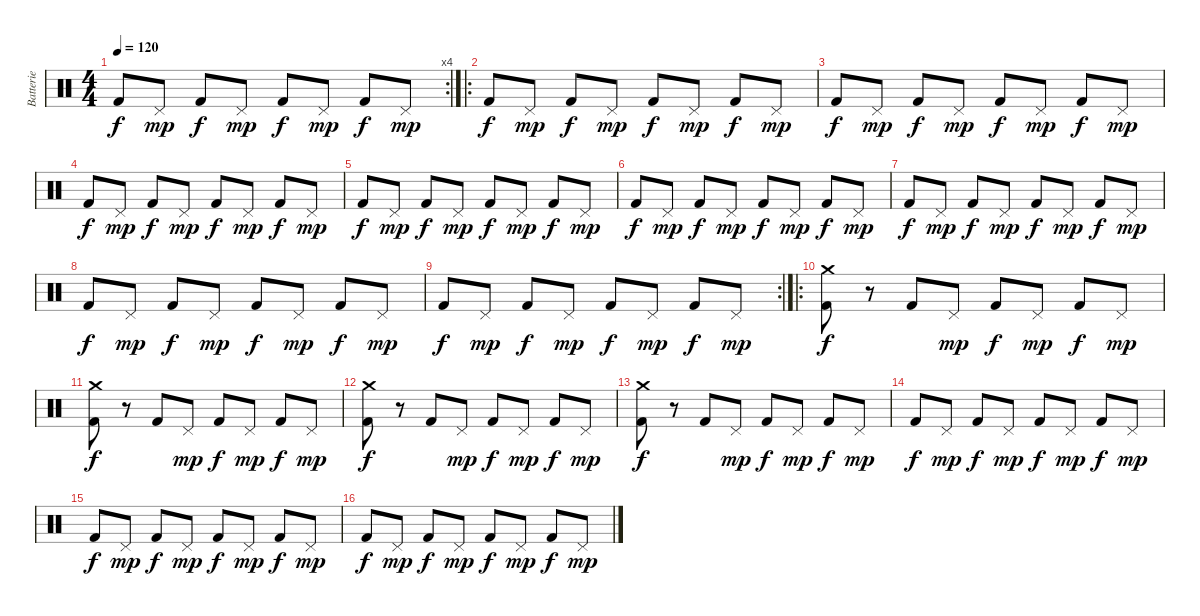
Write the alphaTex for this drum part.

\track ("Batterie" "Batterie") {instrument percussion}
\staff {score}
\articulation defaults
\rc 4
\ts (4 4)
\tempo 120
\clef neutral
\ks c "Kick (hit) 2".8{dy f} "Pedal Hi-Hat (hit)".8{dy mp} "Kick (hit) 2".8{dy f} "Pedal Hi-Hat (hit)".8{dy mp} "Kick (hit) 2".8{dy f} "Pedal Hi-Hat (hit)".8{dy mp} "Kick (hit) 2".8{dy f} "Pedal Hi-Hat (hit)".8{dy mp}
|
\ro "Kick (hit) 2".8{dy f} "Pedal Hi-Hat (hit)".8{dy mp} "Kick (hit) 2".8{dy f} "Pedal Hi-Hat (hit)".8{dy mp} "Kick (hit) 2".8{dy f} "Pedal Hi-Hat (hit)".8{dy mp} "Kick (hit) 2".8{dy f} "Pedal Hi-Hat (hit)".8{dy mp}
|
"Kick (hit) 2".8{dy f} "Pedal Hi-Hat (hit)".8{dy mp} "Kick (hit) 2".8{dy f} "Pedal Hi-Hat (hit)".8{dy mp} "Kick (hit) 2".8{dy f} "Pedal Hi-Hat (hit)".8{dy mp} "Kick (hit) 2".8{dy f} "Pedal Hi-Hat (hit)".8{dy mp} |
"Kick (hit) 2".8{dy f} "Pedal Hi-Hat (hit)".8{dy mp} "Kick (hit) 2".8{dy f} "Pedal Hi-Hat (hit)".8{dy mp} "Kick (hit) 2".8{dy f} "Pedal Hi-Hat (hit)".8{dy mp} "Kick (hit) 2".8{dy f} "Pedal Hi-Hat (hit)".8{dy mp} |
"Kick (hit) 2".8{dy f} "Pedal Hi-Hat (hit)".8{dy mp} "Kick (hit) 2".8{dy f} "Pedal Hi-Hat (hit)".8{dy mp} "Kick (hit) 2".8{dy f} "Pedal Hi-Hat (hit)".8{dy mp} "Kick (hit) 2".8{dy f} "Pedal Hi-Hat (hit)".8{dy mp} |
"Kick (hit) 2".8{dy f} "Pedal Hi-Hat (hit)".8{dy mp} "Kick (hit) 2".8{dy f} "Pedal Hi-Hat (hit)".8{dy mp} "Kick (hit) 2".8{dy f} "Pedal Hi-Hat (hit)".8{dy mp} "Kick (hit) 2".8{dy f} "Pedal Hi-Hat (hit)".8{dy mp} |
"Kick (hit) 2".8{dy f} "Pedal Hi-Hat (hit)".8{dy mp} "Kick (hit) 2".8{dy f} "Pedal Hi-Hat (hit)".8{dy mp} "Kick (hit) 2".8{dy f} "Pedal Hi-Hat (hit)".8{dy mp} "Kick (hit) 2".8{dy f} "Pedal Hi-Hat (hit)".8{dy mp} |
"Kick (hit) 2".8{dy f} "Pedal Hi-Hat (hit)".8{dy mp} "Kick (hit) 2".8{dy f} "Pedal Hi-Hat (hit)".8{dy mp} "Kick (hit) 2".8{dy f} "Pedal Hi-Hat (hit)".8{dy mp} "Kick (hit) 2".8{dy f} "Pedal Hi-Hat (hit)".8{dy mp} |
\rc 2 "Kick (hit) 2".8{dy f} "Pedal Hi-Hat (hit)".8{dy mp} "Kick (hit) 2".8{dy f} "Pedal Hi-Hat (hit)".8{dy mp} "Kick (hit) 2".8{dy f} "Pedal Hi-Hat (hit)".8{dy mp} "Kick (hit) 2".8{dy f} "Pedal Hi-Hat (hit)".8{dy mp}
|
\ro
("Kick (hit) 2" "Crash medium (hit)").8{dy f} r.8 "Kick (hit) 2".8 "Pedal Hi-Hat (hit)".8{dy mp} "Kick (hit) 2".8{dy f} "Pedal Hi-Hat (hit)".8{dy mp} "Kick (hit) 2".8{dy f} "Pedal Hi-Hat (hit)".8{dy mp} |
("Kick (hit) 2" "Crash medium (hit)").8{dy f} r.8 "Kick (hit) 2".8 "Pedal Hi-Hat (hit)".8{dy mp} "Kick (hit) 2".8{dy f} "Pedal Hi-Hat (hit)".8{dy mp} "Kick (hit) 2".8{dy f} "Pedal Hi-Hat (hit)".8{dy mp} |
("Kick (hit) 2" "Crash medium (hit)").8{dy f} r.8 "Kick (hit) 2".8 "Pedal Hi-Hat (hit)".8{dy mp} "Kick (hit) 2".8{dy f} "Pedal Hi-Hat (hit)".8{dy mp} "Kick (hit) 2".8{dy f} "Pedal Hi-Hat (hit)".8{dy mp} |
("Kick (hit) 2" "Crash medium (hit)").8{dy f} r.8 "Kick (hit) 2".8 "Pedal Hi-Hat (hit)".8{dy mp} "Kick (hit) 2".8{dy f} "Pedal Hi-Hat (hit)".8{dy mp} "Kick (hit) 2".8{dy f} "Pedal Hi-Hat (hit)".8{dy mp} |
"Kick (hit) 2".8{dy f} "Pedal Hi-Hat (hit)".8{dy mp} "Kick (hit) 2".8{dy f} "Pedal Hi-Hat (hit)".8{dy mp} "Kick (hit) 2".8{dy f} "Pedal Hi-Hat (hit)".8{dy mp} "Kick (hit) 2".8{dy f} "Pedal Hi-Hat (hit)".8{dy mp} |
"Kick (hit) 2".8{dy f} "Pedal Hi-Hat (hit)".8{dy mp} "Kick (hit) 2".8{dy f} "Pedal Hi-Hat (hit)".8{dy mp} "Kick (hit) 2".8{dy f} "Pedal Hi-Hat (hit)".8{dy mp} "Kick (hit) 2".8{dy f} "Pedal Hi-Hat (hit)".8{dy mp} |
"Kick (hit) 2".8{dy f} "Pedal Hi-Hat (hit)".8{dy mp} "Kick (hit) 2".8{dy f} "Pedal Hi-Hat (hit)".8{dy mp} "Kick (hit) 2".8{dy f} "Pedal Hi-Hat (hit)".8{dy mp} "Kick (hit) 2".8{dy f} "Pedal Hi-Hat (hit)".8{dy mp}
